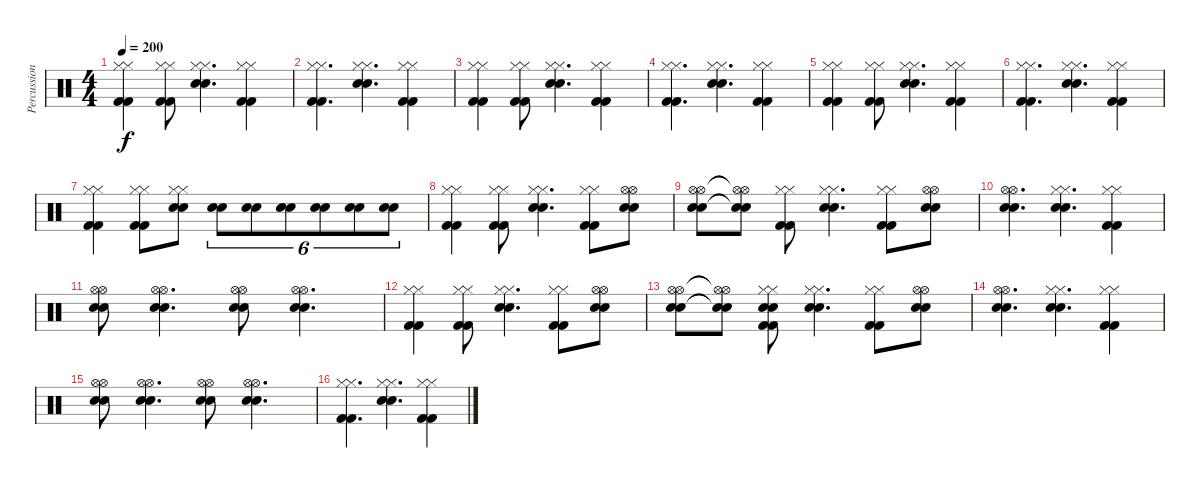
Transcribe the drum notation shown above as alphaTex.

\track ("Percussion" "Percussion") {instrument percussion}
\staff {score}
\articulation defaults
\ts (4 4)
\tempo 200
\clef neutral
\ks c
("Hi-Hat (closed)" "Hi-Hat (closed)" "Kick (hit) 2" "Kick (hit) 2").4{dy f} ("Hi-Hat (closed)" "Hi-Hat (closed)" "Kick (hit) 2" "Kick (hit) 2").8 ("Hi-Hat (closed)" "Hi-Hat (closed)" "Electric Snare (hit)" "Electric Snare (hit)").4{d} ("Hi-Hat (closed)" "Hi-Hat (closed)" "Kick (hit) 2" "Kick (hit) 2").4 |
("Hi-Hat (closed)" "Hi-Hat (closed)" "Kick (hit) 2" "Kick (hit) 2").4{d} ("Hi-Hat (closed)" "Hi-Hat (closed)" "Electric Snare (hit)" "Electric Snare (hit)").4{d} ("Hi-Hat (closed)" "Hi-Hat (closed)" "Kick (hit) 2" "Kick (hit) 2").4 |
("Hi-Hat (closed)" "Hi-Hat (closed)" "Kick (hit) 2" "Kick (hit) 2").4 ("Hi-Hat (closed)" "Hi-Hat (closed)" "Kick (hit) 2" "Kick (hit) 2").8 ("Hi-Hat (closed)" "Hi-Hat (closed)" "Electric Snare (hit)" "Electric Snare (hit)").4{d} ("Hi-Hat (closed)" "Hi-Hat (closed)" "Kick (hit) 2" "Kick (hit) 2").4 |
("Hi-Hat (closed)" "Hi-Hat (closed)" "Kick (hit) 2" "Kick (hit) 2").4{d} ("Hi-Hat (closed)" "Hi-Hat (closed)" "Electric Snare (hit)" "Electric Snare (hit)").4{d} ("Hi-Hat (closed)" "Hi-Hat (closed)" "Kick (hit) 2" "Kick (hit) 2").4 |
("Hi-Hat (closed)" "Hi-Hat (closed)" "Kick (hit) 2" "Kick (hit) 2").4 ("Hi-Hat (closed)" "Hi-Hat (closed)" "Kick (hit) 2" "Kick (hit) 2").8 ("Hi-Hat (closed)" "Hi-Hat (closed)" "Electric Snare (hit)" "Electric Snare (hit)").4{d} ("Hi-Hat (closed)" "Hi-Hat (closed)" "Kick (hit) 2" "Kick (hit) 2").4 |
("Hi-Hat (closed)" "Hi-Hat (closed)" "Kick (hit) 2" "Kick (hit) 2").4{d} ("Hi-Hat (closed)" "Hi-Hat (closed)" "Electric Snare (hit)" "Electric Snare (hit)").4{d} ("Hi-Hat (closed)" "Hi-Hat (closed)" "Kick (hit) 2" "Kick (hit) 2").4 |
("Hi-Hat (closed)" "Hi-Hat (closed)" "Kick (hit) 2" "Kick (hit) 2").4 ("Hi-Hat (closed)" "Hi-Hat (closed)" "Kick (hit) 2" "Kick (hit) 2").8 ("Hi-Hat (closed)" "Hi-Hat (closed)" "Electric Snare (hit)" "Electric Snare (hit)").8 ("Electric Snare (hit)" "Electric Snare (hit)").8{tu (6 4)} ("Electric Snare (hit)" "Electric Snare (hit)").8{tu (6 4)} ("Electric Snare (hit)" "Electric Snare (hit)").8{tu (6 4)} ("Electric Snare (hit)" "Electric Snare (hit)").8{tu (6 4)} ("Electric Snare (hit)" "Electric Snare (hit)").8{tu (6 4)} ("Electric Snare (hit)" "Electric Snare (hit)").8{tu (6 4)} |
("Hi-Hat (closed)" "Hi-Hat (closed)" "Kick (hit) 2" "Kick (hit) 2").4 ("Hi-Hat (closed)" "Hi-Hat (closed)" "Kick (hit) 2" "Kick (hit) 2").8 ("Hi-Hat (closed)" "Hi-Hat (closed)" "Electric Snare (hit)" "Electric Snare (hit)").4{d} ("Hi-Hat (closed)" "Hi-Hat (closed)" "Kick (hit) 2" "Kick (hit) 2").8 ("Hi-Hat (open)" "Hi-Hat (open)" "Electric Snare (hit)" "Electric Snare (hit)").8 |
("Hi-Hat (open)" "Hi-Hat (open)" "Electric Snare (hit)" "Electric Snare (hit)").8 ("Hi-Hat (open)"{t} "Hi-Hat (open)"{t} "Electric Snare (hit)"{t} "Electric Snare (hit)"{t}).8 ("Hi-Hat (closed)" "Hi-Hat (closed)" "Kick (hit) 2" "Kick (hit) 2").8 ("Hi-Hat (closed)" "Hi-Hat (closed)" "Electric Snare (hit)" "Electric Snare (hit)").4{d} ("Hi-Hat (closed)" "Hi-Hat (closed)" "Kick (hit) 2" "Kick (hit) 2").8 ("Hi-Hat (open)" "Hi-Hat (open)" "Electric Snare (hit)" "Electric Snare (hit)").8 |
("Hi-Hat (open)" "Hi-Hat (open)" "Electric Snare (hit)" "Electric Snare (hit)").4{d} ("Hi-Hat (closed)" "Hi-Hat (closed)" "Electric Snare (hit)" "Electric Snare (hit)").4{d} ("Hi-Hat (closed)" "Hi-Hat (closed)" "Kick (hit) 2" "Kick (hit) 2").4 |
("Hi-Hat (open)" "Hi-Hat (open)" "Electric Snare (hit)" "Electric Snare (hit)").8 ("Hi-Hat (open)" "Hi-Hat (open)" "Electric Snare (hit)" "Electric Snare (hit)").4{d} ("Hi-Hat (open)" "Hi-Hat (open)" "Electric Snare (hit)" "Electric Snare (hit)").8 ("Hi-Hat (open)" "Hi-Hat (open)" "Electric Snare (hit)" "Electric Snare (hit)").4{d} |
("Hi-Hat (closed)" "Hi-Hat (closed)" "Kick (hit) 2" "Kick (hit) 2").4 ("Hi-Hat (closed)" "Hi-Hat (closed)" "Kick (hit) 2" "Kick (hit) 2").8 ("Hi-Hat (closed)" "Hi-Hat (closed)" "Electric Snare (hit)" "Electric Snare (hit)").4{d} ("Hi-Hat (closed)" "Hi-Hat (closed)" "Kick (hit) 2" "Kick (hit) 2").8 ("Hi-Hat (open)" "Hi-Hat (open)" "Electric Snare (hit)" "Electric Snare (hit)").8 |
("Hi-Hat (open)" "Hi-Hat (open)" "Electric Snare (hit)" "Electric Snare (hit)").8 ("Hi-Hat (open)"{t} "Hi-Hat (open)"{t} "Electric Snare (hit)"{t} "Electric Snare (hit)"{t}).8 ("Hi-Hat (closed)" "Hi-Hat (closed)" "Electric Snare (hit)" "Electric Snare (hit)" "Kick (hit) 2" "Kick (hit) 2").8 ("Hi-Hat (closed)" "Hi-Hat (closed)" "Electric Snare (hit)" "Electric Snare (hit)").4{d} ("Hi-Hat (closed)" "Hi-Hat (closed)" "Kick (hit) 2" "Kick (hit) 2").8 ("Hi-Hat (open)" "Hi-Hat (open)" "Electric Snare (hit)" "Electric Snare (hit)").8 |
("Hi-Hat (open)" "Hi-Hat (open)" "Electric Snare (hit)" "Electric Snare (hit)").4{d} ("Hi-Hat (closed)" "Hi-Hat (closed)" "Electric Snare (hit)" "Electric Snare (hit)").4{d} ("Hi-Hat (closed)" "Hi-Hat (closed)" "Kick (hit) 2" "Kick (hit) 2").4 |
("Hi-Hat (open)" "Hi-Hat (open)" "Electric Snare (hit)" "Electric Snare (hit)").8 ("Hi-Hat (open)" "Hi-Hat (open)" "Electric Snare (hit)" "Electric Snare (hit)").4{d} ("Hi-Hat (open)" "Hi-Hat (open)" "Electric Snare (hit)" "Electric Snare (hit)").8 ("Hi-Hat (open)" "Hi-Hat (open)" "Electric Snare (hit)" "Electric Snare (hit)").4{d} |
("Hi-Hat (closed)" "Hi-Hat (closed)" "Kick (hit) 2" "Kick (hit) 2").4{d} ("Hi-Hat (closed)" "Hi-Hat (closed)" "Electric Snare (hit)" "Electric Snare (hit)").4{d} ("Hi-Hat (closed)" "Hi-Hat (closed)" "Kick (hit) 2" "Kick (hit) 2").4
